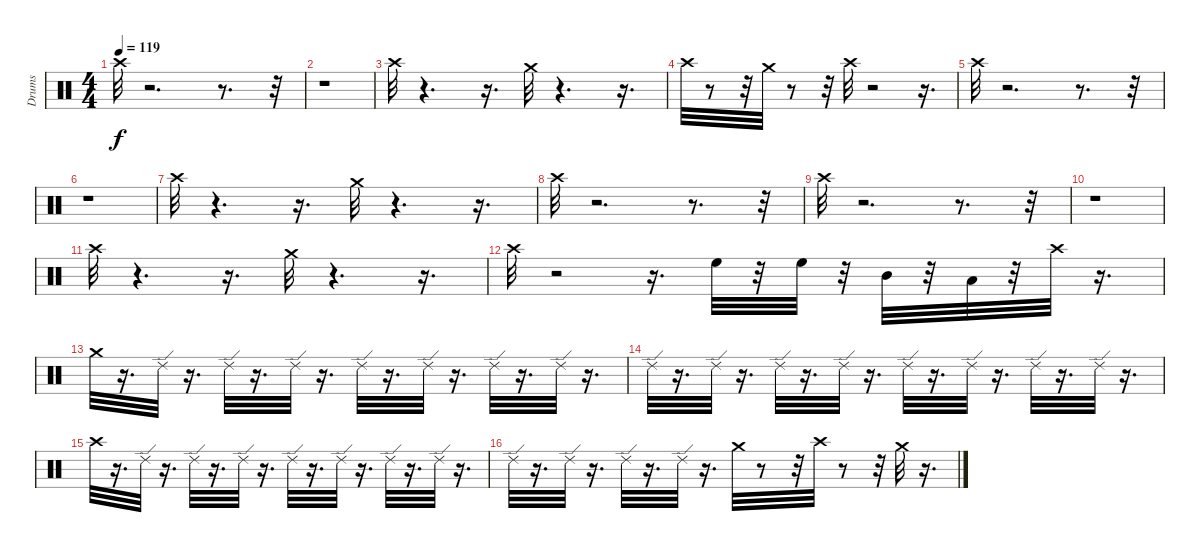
\track ("Drums" "Drums") {instrument percussion}
\staff {score}
\articulation defaults
\ts (4 4)
\tempo 119
\clef neutral
\ks c "Crash high (hit)".32{dy f}
r.2{d} r.8{d} r.32 |
r.1 |
"Crash high (hit)".32 r.4{d} r.16{d} "Crash medium (hit)".32 r.4{d} r.16{d} |
"Crash high (hit)".32 r.8 r.32 "Crash medium (hit)".32 r.8 r.32 "Crash high (hit)".32 r.2 r.16{d} |
"Crash high (hit)".32 r.2{d} r.8{d} r.32 |
r.1 |
"Crash high (hit)".32 r.4{d} r.16{d} "Crash medium (hit)".32 r.4{d} r.16{d} |
"Crash high (hit)".32 r.2{d} r.8{d} r.32 |
"Crash high (hit)".32 r.2{d} r.8{d} r.32 |
r.1 |
"Crash high (hit)".32 r.4{d} r.16{d} "Crash medium (hit)".32 r.4{d} r.16{d} |
"Crash high (hit)".32 r.2 r.16{d} "High Floor Tom (hit)".32 r.32 "High Floor Tom (hit)".32 r.32 "Mid Tom (hit)".32 r.32 "Low Tom (hit)".32 r.32 "Crash high (hit)".32 r.16{d} |
"Crash medium (hit)".32 r.16{d} "Ride (edge) 2".32 r.16{d} "Ride (edge) 2".32 r.16{d} "Ride (edge) 2".32 r.16{d} "Ride (edge) 2".32 r.16{d} "Ride (edge) 2".32 r.16{d} "Ride (edge) 2".32 r.16{d} "Ride (edge) 2".32 r.16{d} |
"Ride (edge) 2".32 r.16{d} "Ride (edge) 2".32 r.16{d} "Ride (edge) 2".32 r.16{d} "Ride (edge) 2".32 r.16{d} "Ride (edge) 2".32 r.16{d} "Ride (edge) 2".32 r.16{d} "Ride (edge) 2".32 r.16{d} "Ride (edge) 2".32 r.16{d} |
"Crash high (hit)".32 r.16{d} "Ride (edge) 2".32 r.16{d} "Ride (edge) 2".32 r.16{d} "Ride (edge) 2".32 r.16{d} "Ride (edge) 2".32 r.16{d} "Ride (edge) 2".32 r.16{d} "Ride (edge) 2".32 r.16{d} "Ride (edge) 2".32 r.16{d} |
"Ride (edge) 2".32 r.16{d} "Ride (edge) 2".32 r.16{d} "Ride (edge) 2".32 r.16{d} "Ride (edge) 2".32 r.16{d} "Crash medium (hit)".32 r.8 r.32 "Crash high (hit)".32 r.8 r.32 "Crash medium (hit)".32 r.16{d}
